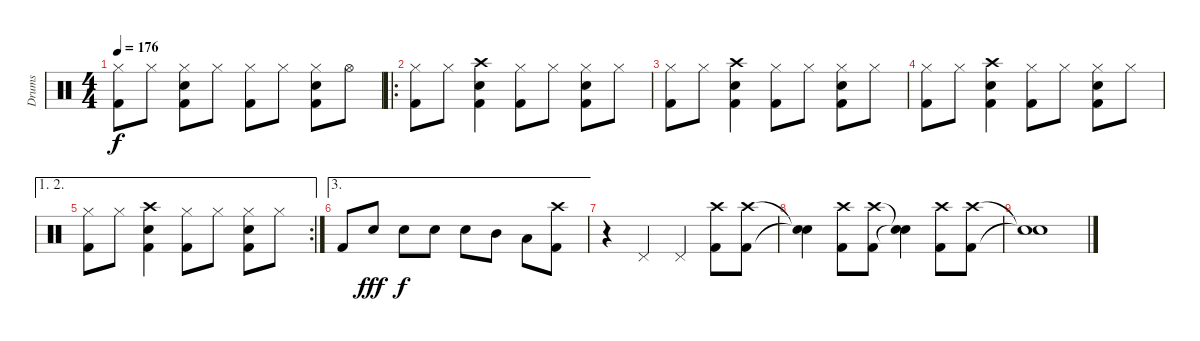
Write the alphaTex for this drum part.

\track ("Drums" "Drums") {instrument percussion}
\staff {score}
\articulation defaults
\ts (4 4)
\tempo 176
\clef neutral
\ks c
("Hi-Hat (closed)" "Kick (hit) 2").8{dy f} "Hi-Hat (closed)".8 ("Hi-Hat (closed)" "Snare (hit) 2" "Kick (hit) 2").8 "Hi-Hat (closed)".8 ("Hi-Hat (closed)" "Kick (hit) 2").8 "Hi-Hat (closed)".8 ("Hi-Hat (closed)" "Snare (hit) 2" "Kick (hit) 2").8 "Hi-Hat (open)".8 |
\ro
("Hi-Hat (closed)" "Kick (hit) 2").8 "Hi-Hat (closed)".8 ("Crash high (hit)" "Snare (hit) 2" "Kick (hit) 2").4 ("Hi-Hat (closed)" "Kick (hit) 2").8 "Hi-Hat (closed)".8 ("Hi-Hat (closed)" "Snare (hit) 2" "Kick (hit) 2").8 "Hi-Hat (closed)".8 |
("Hi-Hat (closed)" "Kick (hit) 2").8 "Hi-Hat (closed)".8 ("Crash high (hit)" "Snare (hit) 2" "Kick (hit) 2").4 ("Hi-Hat (closed)" "Kick (hit) 2").8 "Hi-Hat (closed)".8 ("Hi-Hat (closed)" "Snare (hit) 2" "Kick (hit) 2").8 "Hi-Hat (closed)".8 |
("Hi-Hat (closed)" "Kick (hit) 2").8 "Hi-Hat (closed)".8 ("Crash high (hit)" "Snare (hit) 2" "Kick (hit) 2").4 ("Hi-Hat (closed)" "Kick (hit) 2").8 "Hi-Hat (closed)".8 ("Hi-Hat (closed)" "Snare (hit) 2" "Kick (hit) 2").8 "Hi-Hat (closed)".8 |
\ae (1 2)
\rc 2
("Hi-Hat (closed)" "Kick (hit) 2").8 "Hi-Hat (closed)".8 ("Crash high (hit)" "Snare (hit) 2" "Kick (hit) 2").4 ("Hi-Hat (closed)" "Kick (hit) 2").8 "Hi-Hat (closed)".8 ("Hi-Hat (closed)" "Snare (hit) 2" "Kick (hit) 2").8 "Hi-Hat (closed)".8 |
\ae 3 "Kick (hit) 2".8 "Snare (hit) 2".8{dy fff} "Snare (hit) 2".8{dy f} "Snare (hit) 2".8 "Snare (hit) 2".8 "Mid Tom (hit)".8 "Low Tom (hit)".8
("Crash high (hit)" "Kick (hit) 2").8 |
r.4 "Pedal Hi-Hat (hit)".4 "Pedal Hi-Hat (hit)".4 ("Crash high (hit)" "Kick (hit) 2").8 ("Crash high (hit)" "Kick (hit) 2").8 |
("Snare (hit)"{t} "Snare (hit)"{t}).4 ("Crash high (hit)" "Kick (hit) 2").8 ("Crash high (hit)" "Kick (hit) 2").8 ("Snare (hit)"{t} "Snare (hit)"{t}).4 ("Crash high (hit)" "Kick (hit) 2").8 ("Crash high (hit)" "Kick (hit) 2").8 |
("Snare (hit)"{t} "Snare (hit)"{t}).1
